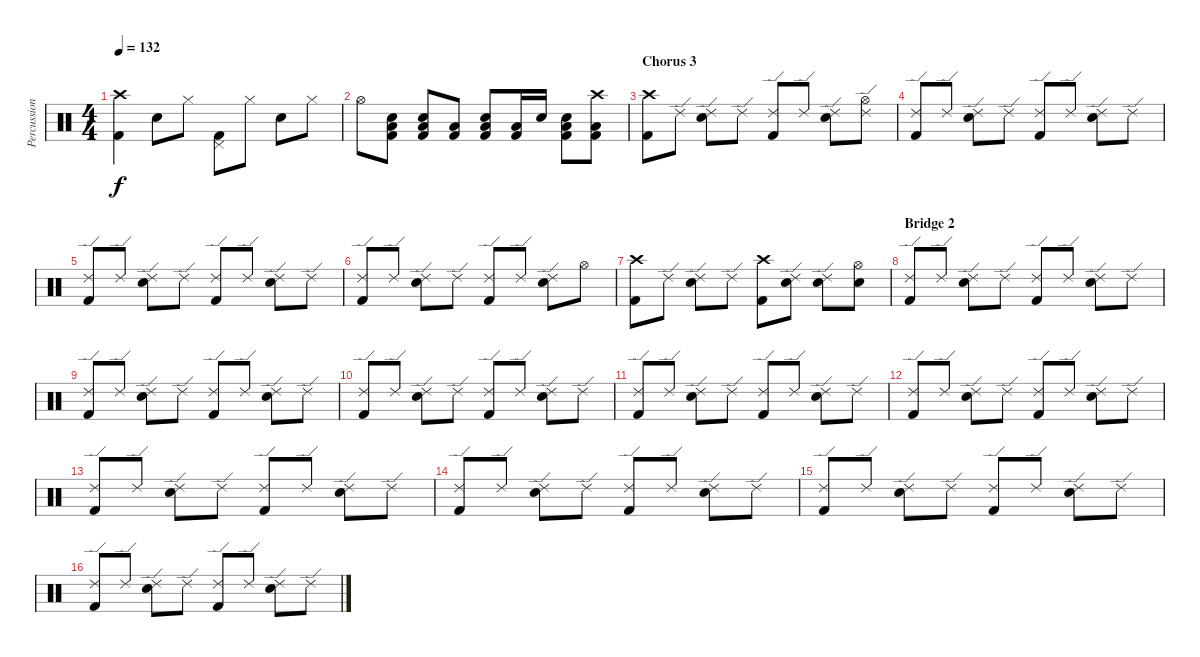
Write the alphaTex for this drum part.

\track ("Percussion" "Percussion") {instrument percussion}
\staff {score}
\articulation defaults
\ts (4 4)
\tempo 132
\clef neutral
\ks c
("Crash high (hit)" "Kick (hit) 2").4{dy f} "Snare (hit) 2".8 "Hi-Hat (closed)".8 ("Pedal Hi-Hat (hit)" "Kick (hit) 2").8 "Hi-Hat (closed)".8 "Snare (hit) 2".8 "Hi-Hat (closed)".8 |
"Hi-Hat (open)".8 ("Low Tom (hit)" "Kick (hit) 2" "Snare (hit) 2").8 ("Low Tom (hit)" "Kick (hit) 2" "Snare (hit) 2").8 ("Low Tom (hit)" "Kick (hit) 2").8 ("Low Tom (hit)" "Kick (hit) 2" "Snare (hit) 2").8 ("Low Tom (hit)" "Kick (hit) 2").16 "Snare (hit) 2".16 ("Low Tom (hit)" "Kick (hit) 2" "Snare (hit) 2").8 ("Low Tom (hit)" "Kick (hit) 2" "Crash high (hit)").8 |
\section ("" "Chorus 3")
("Crash high (hit)" "Kick (hit) 2").8 "Ride (edge) 2".8 ("Ride (edge) 2" "Snare (hit) 2").8 "Ride (edge) 2".8 ("Ride (edge) 2" "Kick (hit) 2").8 "Ride (edge) 2".8 ("Ride (edge) 2" "Snare (hit) 2").8 ("Ride (edge) 2" "Hi-Hat (open)").8 |
("Ride (edge) 2" "Kick (hit) 2").8 "Ride (edge) 2".8 ("Ride (edge) 2" "Snare (hit) 2").8 "Ride (edge) 2".8 ("Ride (edge) 2" "Kick (hit) 2").8 "Ride (edge) 2".8 ("Ride (edge) 2" "Snare (hit) 2").8 "Ride (edge) 2".8 |
("Ride (edge) 2" "Kick (hit) 2").8 "Ride (edge) 2".8 ("Ride (edge) 2" "Snare (hit) 2").8 "Ride (edge) 2".8 ("Ride (edge) 2" "Kick (hit) 2").8 "Ride (edge) 2".8 ("Ride (edge) 2" "Snare (hit) 2").8 "Ride (edge) 2".8 |
("Ride (edge) 2" "Kick (hit) 2").8 "Ride (edge) 2".8 ("Ride (edge) 2" "Snare (hit) 2").8 "Ride (edge) 2".8 ("Ride (edge) 2" "Kick (hit) 2").8 "Ride (edge) 2".8 ("Ride (edge) 2" "Snare (hit) 2").8 "Hi-Hat (open)".8 |
("Crash high (hit)" "Kick (hit) 2").8 "Ride (edge) 2".8 ("Ride (edge) 2" "Snare (hit) 2").8 "Ride (edge) 2".8 ("Crash high (hit)" "Kick (hit) 2").8 ("Ride (edge) 2" "Snare (hit) 2").8 ("Ride (edge) 2" "Snare (hit) 2").8 ("Hi-Hat (open)" "Snare (hit) 2").8 |
\section ("" "Bridge 2")
("Ride (edge) 2" "Kick (hit) 2").8 "Ride (edge) 2".8 ("Ride (edge) 2" "Snare (hit) 2").8 "Ride (edge) 2".8 ("Ride (edge) 2" "Kick (hit) 2").8 "Ride (edge) 2".8 ("Ride (edge) 2" "Snare (hit) 2").8 "Ride (edge) 2".8 |
("Ride (edge) 2" "Kick (hit) 2").8 "Ride (edge) 2".8 ("Ride (edge) 2" "Snare (hit) 2").8 "Ride (edge) 2".8 ("Ride (edge) 2" "Kick (hit) 2").8 "Ride (edge) 2".8 ("Ride (edge) 2" "Snare (hit) 2").8 "Ride (edge) 2".8 |
("Ride (edge) 2" "Kick (hit) 2").8 "Ride (edge) 2".8 ("Ride (edge) 2" "Snare (hit) 2").8 "Ride (edge) 2".8 ("Ride (edge) 2" "Kick (hit) 2").8 "Ride (edge) 2".8 ("Ride (edge) 2" "Snare (hit) 2").8 "Ride (edge) 2".8 |
("Ride (edge) 2" "Kick (hit) 2").8 "Ride (edge) 2".8 ("Ride (edge) 2" "Snare (hit) 2").8 "Ride (edge) 2".8 ("Ride (edge) 2" "Kick (hit) 2").8 "Ride (edge) 2".8 ("Ride (edge) 2" "Snare (hit) 2").8 "Ride (edge) 2".8 |
("Ride (edge) 2" "Kick (hit) 2").8 "Ride (edge) 2".8 ("Ride (edge) 2" "Snare (hit) 2").8 "Ride (edge) 2".8 ("Ride (edge) 2" "Kick (hit) 2").8 "Ride (edge) 2".8 ("Ride (edge) 2" "Snare (hit) 2").8 "Ride (edge) 2".8 |
("Ride (edge) 2" "Kick (hit) 2").8 "Ride (edge) 2".8 ("Ride (edge) 2" "Snare (hit) 2").8 "Ride (edge) 2".8 ("Ride (edge) 2" "Kick (hit) 2").8 "Ride (edge) 2".8 ("Ride (edge) 2" "Snare (hit) 2").8 "Ride (edge) 2".8 |
("Ride (edge) 2" "Kick (hit) 2").8 "Ride (edge) 2".8 ("Ride (edge) 2" "Snare (hit) 2").8 "Ride (edge) 2".8 ("Ride (edge) 2" "Kick (hit) 2").8 "Ride (edge) 2".8 ("Ride (edge) 2" "Snare (hit) 2").8 "Ride (edge) 2".8 |
("Ride (edge) 2" "Kick (hit) 2").8 "Ride (edge) 2".8 ("Ride (edge) 2" "Snare (hit) 2").8 "Ride (edge) 2".8 ("Ride (edge) 2" "Kick (hit) 2").8 "Ride (edge) 2".8 ("Ride (edge) 2" "Snare (hit) 2").8 "Ride (edge) 2".8 |
("Ride (edge) 2" "Kick (hit) 2").8 "Ride (edge) 2".8 ("Ride (edge) 2" "Snare (hit) 2").8 "Ride (edge) 2".8 ("Ride (edge) 2" "Kick (hit) 2").8 "Ride (edge) 2".8 ("Ride (edge) 2" "Snare (hit) 2").8 "Ride (edge) 2".8
